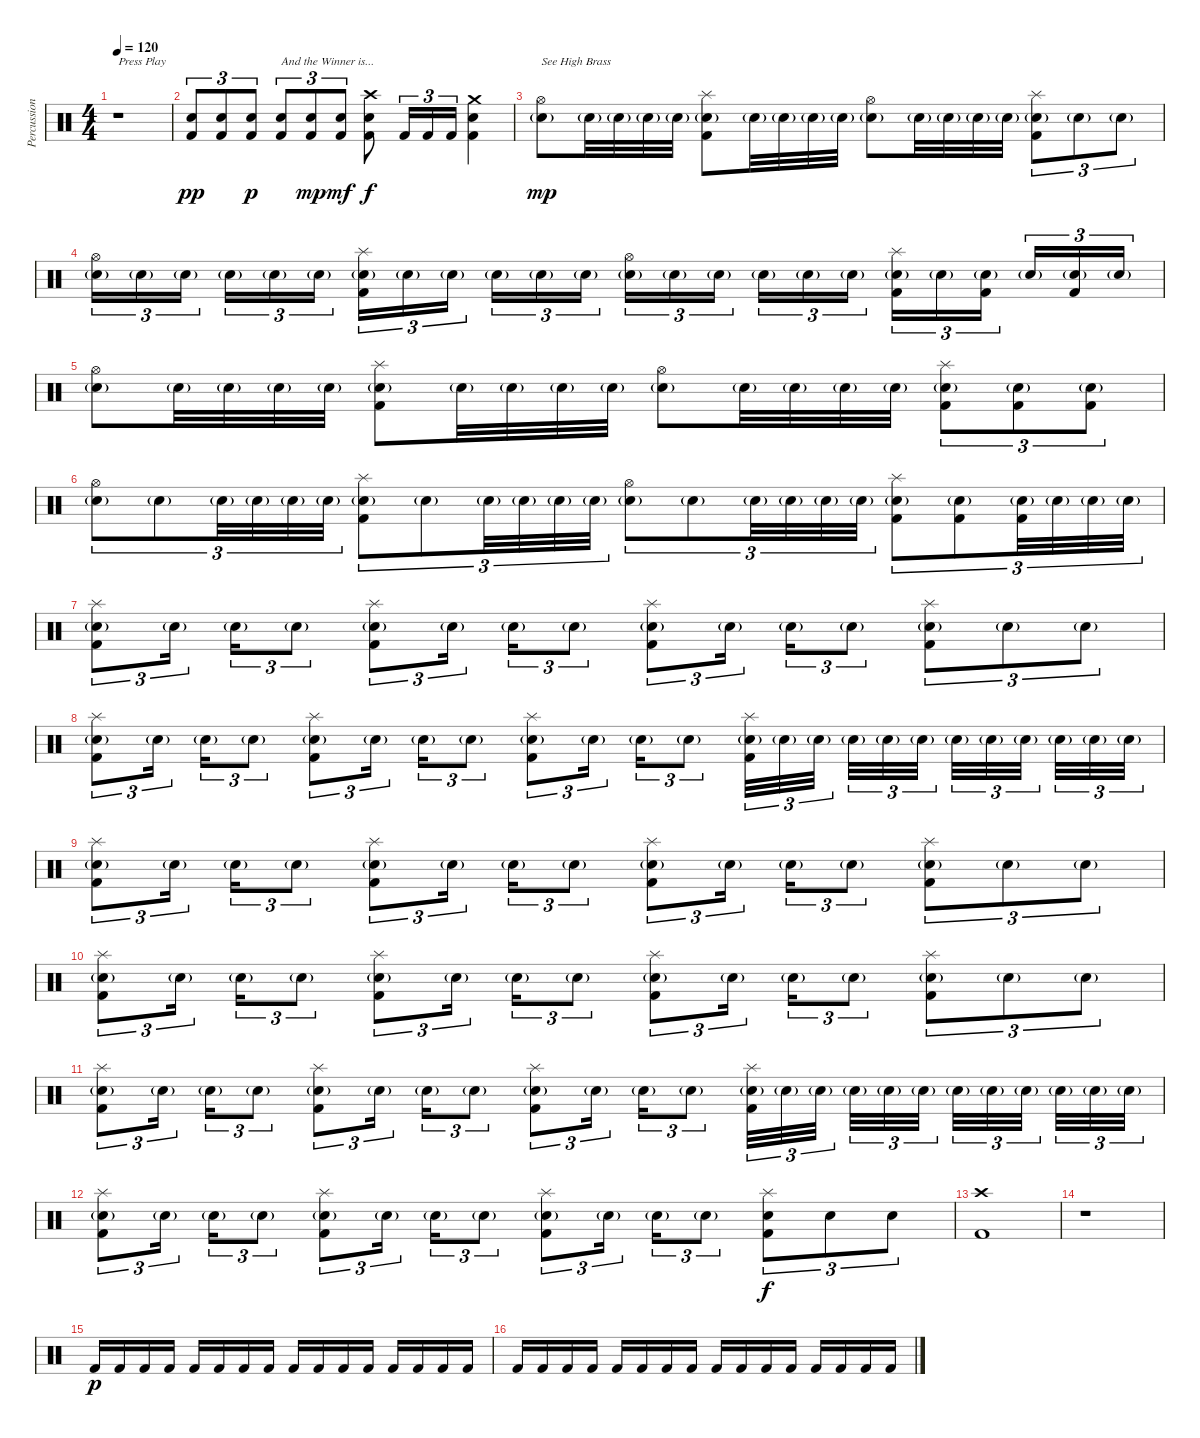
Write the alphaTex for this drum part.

\track ("Percussion" "Percussion") {instrument percussion}
\staff {score}
\articulation defaults
\ts (4 4)
\tempo 120
\clef neutral
\ks c
r.1{txt "Press Play" dy pp} |
("Snare (hit) 2" "Kick (hit) 2").8{tu (3 2)} ("Snare (hit) 2" "Kick (hit) 2").8{tu (3 2)} ("Snare (hit) 2" "Kick (hit) 2").8{tu (3 2) dy p} ("Snare (hit) 2" "Kick (hit) 2").8{tu (3 2) txt "And the Winner is..."} ("Snare (hit) 2" "Kick (hit) 2").8{tu (3 2) dy mp} ("Snare (hit) 2" "Kick (hit) 2").8{tu (3 2) dy mf} ("Crash high (hit)" "Snare (hit) 2" "Kick (hit) 2").8{dy f} "Kick (hit) 2".16{tu (3 2)} "Kick (hit) 2".16{tu (3 2)} "Kick (hit) 2".16{tu (3 2)} ("Crash medium (hit)" "Snare (hit) 2" "Kick (hit) 2").4 |
("Hi-Hat (open)" "Snare (hit) 2"{g}).8{txt "See High Brass" dy mp} "Snare (hit) 2"{g}.32 "Snare (hit) 2"{g}.32 "Snare (hit) 2"{g}.32 "Snare (hit) 2"{g}.32 ("Splash (hit)" "Snare (hit) 2"{g} "Kick (hit) 2").8 "Snare (hit) 2"{g}.32 "Snare (hit) 2"{g}.32 "Snare (hit) 2"{g}.32 "Snare (hit) 2"{g}.32 ("Hi-Hat (open)" "Snare (hit) 2"{g}).8 "Snare (hit) 2"{g}.32 "Snare (hit) 2"{g}.32 "Snare (hit) 2"{g}.32 "Snare (hit) 2"{g}.32 ("Splash (hit)" "Snare (hit) 2"{g} "Kick (hit) 2").8{tu (3 2)} "Snare (hit) 2"{g}.8{tu (3 2)} "Snare (hit) 2"{g}.8{tu (3 2)} |
("Hi-Hat (open)" "Snare (hit) 2"{g}).16{tu (3 2)} "Snare (hit) 2"{g}.16{tu (3 2)} "Snare (hit) 2"{g}.16{tu (3 2)} "Snare (hit) 2"{g}.16{tu (3 2)} "Snare (hit) 2"{g}.16{tu (3 2)} "Snare (hit) 2"{g}.16{tu (3 2)} ("Splash (hit)" "Snare (hit) 2"{g} "Kick (hit) 2").16{tu (3 2)} "Snare (hit) 2"{g}.16{tu (3 2)} "Snare (hit) 2"{g}.16{tu (3 2)} "Snare (hit) 2"{g}.16{tu (3 2)} "Snare (hit) 2"{g}.16{tu (3 2)} "Snare (hit) 2"{g}.16{tu (3 2)} ("Hi-Hat (open)" "Snare (hit) 2"{g}).16{tu (3 2)} "Snare (hit) 2"{g}.16{tu (3 2)} "Snare (hit) 2"{g}.16{tu (3 2)} "Snare (hit) 2"{g}.16{tu (3 2)} "Snare (hit) 2"{g}.16{tu (3 2)} "Snare (hit) 2"{g}.16{tu (3 2)} ("Splash (hit)" "Snare (hit) 2"{g} "Kick (hit) 2").16{tu (3 2)} "Snare (hit) 2"{g}.16{tu (3 2)} ("Snare (hit) 2"{g} "Kick (hit) 2").16{tu (3 2)} "Snare (hit) 2"{g}.16{tu (3 2)} ("Snare (hit) 2"{g} "Kick (hit) 2").16{tu (3 2)} "Snare (hit) 2"{g}.16{tu (3 2)} |
("Hi-Hat (open)" "Snare (hit) 2"{g}).8 "Snare (hit) 2"{g}.32 "Snare (hit) 2"{g}.32 "Snare (hit) 2"{g}.32 "Snare (hit) 2"{g}.32 ("Splash (hit)" "Snare (hit) 2"{g} "Kick (hit) 2").8 "Snare (hit) 2"{g}.32 "Snare (hit) 2"{g}.32 "Snare (hit) 2"{g}.32 "Snare (hit) 2"{g}.32 ("Hi-Hat (open)" "Snare (hit) 2"{g}).8 "Snare (hit) 2"{g}.32 "Snare (hit) 2"{g}.32 "Snare (hit) 2"{g}.32 "Snare (hit) 2"{g}.32 ("Splash (hit)" "Snare (hit) 2"{g} "Kick (hit) 2").8{tu (3 2)} ("Snare (hit) 2"{g} "Kick (hit) 2").8{tu (3 2)} ("Snare (hit) 2"{g} "Kick (hit) 2").8{tu (3 2)} |
("Hi-Hat (open)" "Snare (hit) 2"{g}).8{tu (3 2)} "Snare (hit) 2"{g}.8{tu (3 2)} "Snare (hit) 2"{g}.32{tu (3 2)} "Snare (hit) 2"{g}.32{tu (3 2)} "Snare (hit) 2"{g}.32{tu (3 2)} "Snare (hit) 2"{g}.32{tu (3 2)} ("Splash (hit)" "Snare (hit) 2"{g} "Kick (hit) 2").8{tu (3 2)} "Snare (hit) 2"{g}.8{tu (3 2)} "Snare (hit) 2"{g}.32{tu (3 2)} "Snare (hit) 2"{g}.32{tu (3 2)} "Snare (hit) 2"{g}.32{tu (3 2)} "Snare (hit) 2"{g}.32{tu (3 2)} ("Hi-Hat (open)" "Snare (hit) 2"{g}).8{tu (3 2)} "Snare (hit) 2"{g}.8{tu (3 2)} "Snare (hit) 2"{g}.32{tu (3 2)} "Snare (hit) 2"{g}.32{tu (3 2)} "Snare (hit) 2"{g}.32{tu (3 2)} "Snare (hit) 2"{g}.32{tu (3 2)} ("Splash (hit)" "Snare (hit) 2"{g} "Kick (hit) 2").8{tu (3 2)} ("Snare (hit) 2"{g} "Kick (hit) 2").8{tu (3 2)} ("Snare (hit) 2"{g} "Kick (hit) 2").32{tu (3 2)} "Snare (hit) 2"{g}.32{tu (3 2)} "Snare (hit) 2"{g}.32{tu (3 2)} "Snare (hit) 2"{g}.32{tu (3 2)} |
("Splash (hit)" "Snare (hit) 2"{g} "Kick (hit) 2").8{tu (3 2)} "Snare (hit) 2"{g}.16{tu (3 2)} "Snare (hit) 2"{g}.16{tu (3 2)} "Snare (hit) 2"{g}.8{tu (3 2)} ("Splash (hit)" "Snare (hit) 2"{g} "Kick (hit) 2").8{tu (3 2)} "Snare (hit) 2"{g}.16{tu (3 2)} "Snare (hit) 2"{g}.16{tu (3 2)} "Snare (hit) 2"{g}.8{tu (3 2)} ("Splash (hit)" "Snare (hit) 2"{g} "Kick (hit) 2").8{tu (3 2)} "Snare (hit) 2"{g}.16{tu (3 2)} "Snare (hit) 2"{g}.16{tu (3 2)} "Snare (hit) 2"{g}.8{tu (3 2)} ("Splash (hit)" "Snare (hit) 2"{g} "Kick (hit) 2").8{tu (3 2)} "Snare (hit) 2"{g}.8{tu (3 2)} "Snare (hit) 2"{g}.8{tu (3 2)} |
("Splash (hit)" "Snare (hit) 2"{g} "Kick (hit) 2").8{tu (3 2)} "Snare (hit) 2"{g}.16{tu (3 2)} "Snare (hit) 2"{g}.16{tu (3 2)} "Snare (hit) 2"{g}.8{tu (3 2)} ("Splash (hit)" "Snare (hit) 2"{g} "Kick (hit) 2").8{tu (3 2)} "Snare (hit) 2"{g}.16{tu (3 2)} "Snare (hit) 2"{g}.16{tu (3 2)} "Snare (hit) 2"{g}.8{tu (3 2)} ("Splash (hit)" "Snare (hit) 2"{g} "Kick (hit) 2").8{tu (3 2)} "Snare (hit) 2"{g}.16{tu (3 2)} "Snare (hit) 2"{g}.16{tu (3 2)} "Snare (hit) 2"{g}.8{tu (3 2)} ("Splash (hit)" "Snare (hit) 2"{g} "Kick (hit) 2").32{tu (3 2)} "Snare (hit) 2"{g}.32{tu (3 2)} "Snare (hit) 2"{g}.32{tu (3 2)} "Snare (hit) 2"{g}.32{tu (3 2)} "Snare (hit) 2"{g}.32{tu (3 2)} "Snare (hit) 2"{g}.32{tu (3 2)} "Snare (hit) 2"{g}.32{tu (3 2)} "Snare (hit) 2"{g}.32{tu (3 2)} "Snare (hit) 2"{g}.32{tu (3 2)} "Snare (hit) 2"{g}.32{tu (3 2)} "Snare (hit) 2"{g}.32{tu (3 2)} "Snare (hit) 2"{g}.32{tu (3 2)} |
("Splash (hit)" "Snare (hit) 2"{g} "Kick (hit) 2").8{tu (3 2)} "Snare (hit) 2"{g}.16{tu (3 2)} "Snare (hit) 2"{g}.16{tu (3 2)} "Snare (hit) 2"{g}.8{tu (3 2)} ("Splash (hit)" "Snare (hit) 2"{g} "Kick (hit) 2").8{tu (3 2)} "Snare (hit) 2"{g}.16{tu (3 2)} "Snare (hit) 2"{g}.16{tu (3 2)} "Snare (hit) 2"{g}.8{tu (3 2)} ("Splash (hit)" "Snare (hit) 2"{g} "Kick (hit) 2").8{tu (3 2)} "Snare (hit) 2"{g}.16{tu (3 2)} "Snare (hit) 2"{g}.16{tu (3 2)} "Snare (hit) 2"{g}.8{tu (3 2)} ("Splash (hit)" "Snare (hit) 2"{g} "Kick (hit) 2").8{tu (3 2)} "Snare (hit) 2"{g}.8{tu (3 2)} "Snare (hit) 2"{g}.8{tu (3 2)} |
("Splash (hit)" "Snare (hit) 2"{g} "Kick (hit) 2").8{tu (3 2)} "Snare (hit) 2"{g}.16{tu (3 2)} "Snare (hit) 2"{g}.16{tu (3 2)} "Snare (hit) 2"{g}.8{tu (3 2)} ("Splash (hit)" "Snare (hit) 2"{g} "Kick (hit) 2").8{tu (3 2)} "Snare (hit) 2"{g}.16{tu (3 2)} "Snare (hit) 2"{g}.16{tu (3 2)} "Snare (hit) 2"{g}.8{tu (3 2)} ("Splash (hit)" "Snare (hit) 2"{g} "Kick (hit) 2").8{tu (3 2)} "Snare (hit) 2"{g}.16{tu (3 2)} "Snare (hit) 2"{g}.16{tu (3 2)} "Snare (hit) 2"{g}.8{tu (3 2)} ("Splash (hit)" "Snare (hit) 2"{g} "Kick (hit) 2").8{tu (3 2)} "Snare (hit) 2"{g}.8{tu (3 2)} "Snare (hit) 2"{g}.8{tu (3 2)} |
("Splash (hit)" "Snare (hit) 2"{g} "Kick (hit) 2").8{tu (3 2)} "Snare (hit) 2"{g}.16{tu (3 2)} "Snare (hit) 2"{g}.16{tu (3 2)} "Snare (hit) 2"{g}.8{tu (3 2)} ("Splash (hit)" "Snare (hit) 2"{g} "Kick (hit) 2").8{tu (3 2)} "Snare (hit) 2"{g}.16{tu (3 2)} "Snare (hit) 2"{g}.16{tu (3 2)} "Snare (hit) 2"{g}.8{tu (3 2)} ("Splash (hit)" "Snare (hit) 2"{g} "Kick (hit) 2").8{tu (3 2)} "Snare (hit) 2"{g}.16{tu (3 2)} "Snare (hit) 2"{g}.16{tu (3 2)} "Snare (hit) 2"{g}.8{tu (3 2)} ("Splash (hit)" "Snare (hit) 2"{g} "Kick (hit) 2").32{tu (3 2)} "Snare (hit) 2"{g}.32{tu (3 2)} "Snare (hit) 2"{g}.32{tu (3 2)} "Snare (hit) 2"{g}.32{tu (3 2)} "Snare (hit) 2"{g}.32{tu (3 2)} "Snare (hit) 2"{g}.32{tu (3 2)} "Snare (hit) 2"{g}.32{tu (3 2)} "Snare (hit) 2"{g}.32{tu (3 2)} "Snare (hit) 2"{g}.32{tu (3 2)} "Snare (hit) 2"{g}.32{tu (3 2)} "Snare (hit) 2"{g}.32{tu (3 2)} "Snare (hit) 2"{g}.32{tu (3 2)} |
("Splash (hit)" "Snare (hit) 2"{g} "Kick (hit) 2").8{tu (3 2)} "Snare (hit) 2"{g}.16{tu (3 2)} "Snare (hit) 2"{g}.16{tu (3 2)} "Snare (hit) 2"{g}.8{tu (3 2)} ("Splash (hit)" "Snare (hit) 2"{g} "Kick (hit) 2").8{tu (3 2)} "Snare (hit) 2"{g}.16{tu (3 2)} "Snare (hit) 2"{g}.16{tu (3 2)} "Snare (hit) 2"{g}.8{tu (3 2)} ("Splash (hit)" "Snare (hit) 2"{g} "Kick (hit) 2").8{tu (3 2)} "Snare (hit) 2"{g}.16{tu (3 2)} "Snare (hit) 2"{g}.16{tu (3 2)} "Snare (hit) 2"{g}.8{tu (3 2)} ("Splash (hit)" "Snare (hit) 2" "Kick (hit) 2").8{tu (3 2) dy f} "Snare (hit) 2".8{tu (3 2)} "Snare (hit) 2".8{tu (3 2)} |
("Crash high (hit)" "Kick (hit) 2").1 |
r.1 |
"Kick (hit) 2".16{dy p} "Kick (hit) 2".16 "Kick (hit) 2".16 "Kick (hit) 2".16 "Kick (hit) 2".16 "Kick (hit) 2".16 "Kick (hit) 2".16 "Kick (hit) 2".16 "Kick (hit) 2".16 "Kick (hit) 2".16 "Kick (hit) 2".16 "Kick (hit) 2".16 "Kick (hit) 2".16 "Kick (hit) 2".16 "Kick (hit) 2".16 "Kick (hit) 2".16 |
"Kick (hit) 2".16 "Kick (hit) 2".16 "Kick (hit) 2".16 "Kick (hit) 2".16 "Kick (hit) 2".16 "Kick (hit) 2".16 "Kick (hit) 2".16 "Kick (hit) 2".16 "Kick (hit) 2".16 "Kick (hit) 2".16 "Kick (hit) 2".16 "Kick (hit) 2".16 "Kick (hit) 2".16 "Kick (hit) 2".16 "Kick (hit) 2".16 "Kick (hit) 2".16
